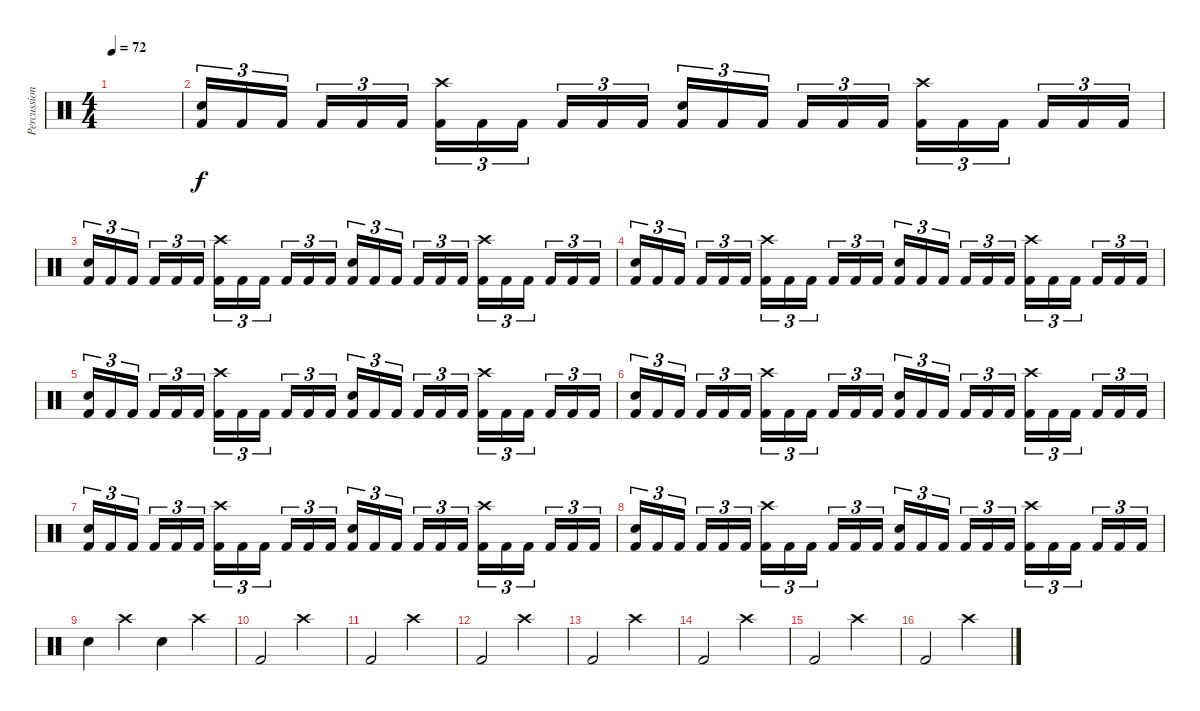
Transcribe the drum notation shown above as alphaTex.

\track ("Percussion" "Percussion") {instrument percussion}
\staff {score}
\articulation defaults
\ts (4 4)
\tempo 72
\clef neutral
\ks c
|
("Snare (hit) 2" "Kick (hit) 2").16{tu (3 2)} "Kick (hit) 2".16{tu (3 2)} "Kick (hit) 2".16{tu (3 2) beam splitsecondary} "Kick (hit) 2".16{tu (3 2)} "Kick (hit) 2".16{tu (3 2)} "Kick (hit) 2".16{tu (3 2)} ("Crash high (hit)" "Kick (hit) 2").16{tu (3 2)} "Kick (hit) 2".16{tu (3 2)} "Kick (hit) 2".16{tu (3 2) beam splitsecondary} "Kick (hit) 2".16{tu (3 2)} "Kick (hit) 2".16{tu (3 2)} "Kick (hit) 2".16{tu (3 2)} ("Snare (hit) 2" "Kick (hit) 2").16{tu (3 2)} "Kick (hit) 2".16{tu (3 2)} "Kick (hit) 2".16{tu (3 2) beam splitsecondary} "Kick (hit) 2".16{tu (3 2)} "Kick (hit) 2".16{tu (3 2)} "Kick (hit) 2".16{tu (3 2)} ("Crash high (hit)" "Kick (hit) 2").16{tu (3 2)} "Kick (hit) 2".16{tu (3 2)} "Kick (hit) 2".16{tu (3 2) beam splitsecondary} "Kick (hit) 2".16{tu (3 2)} "Kick (hit) 2".16{tu (3 2)} "Kick (hit) 2".16{tu (3 2)} |
("Snare (hit) 2" "Kick (hit) 2").16{tu (3 2)} "Kick (hit) 2".16{tu (3 2)} "Kick (hit) 2".16{tu (3 2) beam splitsecondary} "Kick (hit) 2".16{tu (3 2)} "Kick (hit) 2".16{tu (3 2)} "Kick (hit) 2".16{tu (3 2)} ("Crash high (hit)" "Kick (hit) 2").16{tu (3 2)} "Kick (hit) 2".16{tu (3 2)} "Kick (hit) 2".16{tu (3 2) beam splitsecondary} "Kick (hit) 2".16{tu (3 2)} "Kick (hit) 2".16{tu (3 2)} "Kick (hit) 2".16{tu (3 2)} ("Snare (hit) 2" "Kick (hit) 2").16{tu (3 2)} "Kick (hit) 2".16{tu (3 2)} "Kick (hit) 2".16{tu (3 2) beam splitsecondary} "Kick (hit) 2".16{tu (3 2)} "Kick (hit) 2".16{tu (3 2)} "Kick (hit) 2".16{tu (3 2)} ("Crash high (hit)" "Kick (hit) 2").16{tu (3 2)} "Kick (hit) 2".16{tu (3 2)} "Kick (hit) 2".16{tu (3 2) beam splitsecondary} "Kick (hit) 2".16{tu (3 2)} "Kick (hit) 2".16{tu (3 2)} "Kick (hit) 2".16{tu (3 2)} |
("Snare (hit) 2" "Kick (hit) 2").16{tu (3 2)} "Kick (hit) 2".16{tu (3 2)} "Kick (hit) 2".16{tu (3 2) beam splitsecondary} "Kick (hit) 2".16{tu (3 2)} "Kick (hit) 2".16{tu (3 2)} "Kick (hit) 2".16{tu (3 2)} ("Crash high (hit)" "Kick (hit) 2").16{tu (3 2)} "Kick (hit) 2".16{tu (3 2)} "Kick (hit) 2".16{tu (3 2) beam splitsecondary} "Kick (hit) 2".16{tu (3 2)} "Kick (hit) 2".16{tu (3 2)} "Kick (hit) 2".16{tu (3 2)} ("Snare (hit) 2" "Kick (hit) 2").16{tu (3 2)} "Kick (hit) 2".16{tu (3 2)} "Kick (hit) 2".16{tu (3 2) beam splitsecondary} "Kick (hit) 2".16{tu (3 2)} "Kick (hit) 2".16{tu (3 2)} "Kick (hit) 2".16{tu (3 2)} ("Crash high (hit)" "Kick (hit) 2").16{tu (3 2)} "Kick (hit) 2".16{tu (3 2)} "Kick (hit) 2".16{tu (3 2) beam splitsecondary} "Kick (hit) 2".16{tu (3 2)} "Kick (hit) 2".16{tu (3 2)} "Kick (hit) 2".16{tu (3 2)} |
("Snare (hit) 2" "Kick (hit) 2").16{tu (3 2)} "Kick (hit) 2".16{tu (3 2)} "Kick (hit) 2".16{tu (3 2) beam splitsecondary} "Kick (hit) 2".16{tu (3 2)} "Kick (hit) 2".16{tu (3 2)} "Kick (hit) 2".16{tu (3 2)} ("Crash high (hit)" "Kick (hit) 2").16{tu (3 2)} "Kick (hit) 2".16{tu (3 2)} "Kick (hit) 2".16{tu (3 2) beam splitsecondary} "Kick (hit) 2".16{tu (3 2)} "Kick (hit) 2".16{tu (3 2)} "Kick (hit) 2".16{tu (3 2)} ("Snare (hit) 2" "Kick (hit) 2").16{tu (3 2)} "Kick (hit) 2".16{tu (3 2)} "Kick (hit) 2".16{tu (3 2) beam splitsecondary} "Kick (hit) 2".16{tu (3 2)} "Kick (hit) 2".16{tu (3 2)} "Kick (hit) 2".16{tu (3 2)} ("Crash high (hit)" "Kick (hit) 2").16{tu (3 2)} "Kick (hit) 2".16{tu (3 2)} "Kick (hit) 2".16{tu (3 2) beam splitsecondary} "Kick (hit) 2".16{tu (3 2)} "Kick (hit) 2".16{tu (3 2)} "Kick (hit) 2".16{tu (3 2)} |
("Snare (hit) 2" "Kick (hit) 2").16{tu (3 2)} "Kick (hit) 2".16{tu (3 2)} "Kick (hit) 2".16{tu (3 2) beam splitsecondary} "Kick (hit) 2".16{tu (3 2)} "Kick (hit) 2".16{tu (3 2)} "Kick (hit) 2".16{tu (3 2)} ("Crash high (hit)" "Kick (hit) 2").16{tu (3 2)} "Kick (hit) 2".16{tu (3 2)} "Kick (hit) 2".16{tu (3 2) beam splitsecondary} "Kick (hit) 2".16{tu (3 2)} "Kick (hit) 2".16{tu (3 2)} "Kick (hit) 2".16{tu (3 2)} ("Snare (hit) 2" "Kick (hit) 2").16{tu (3 2)} "Kick (hit) 2".16{tu (3 2)} "Kick (hit) 2".16{tu (3 2) beam splitsecondary} "Kick (hit) 2".16{tu (3 2)} "Kick (hit) 2".16{tu (3 2)} "Kick (hit) 2".16{tu (3 2)} ("Crash high (hit)" "Kick (hit) 2").16{tu (3 2)} "Kick (hit) 2".16{tu (3 2)} "Kick (hit) 2".16{tu (3 2) beam splitsecondary} "Kick (hit) 2".16{tu (3 2)} "Kick (hit) 2".16{tu (3 2)} "Kick (hit) 2".16{tu (3 2)} |
("Snare (hit) 2" "Kick (hit) 2").16{tu (3 2)} "Kick (hit) 2".16{tu (3 2)} "Kick (hit) 2".16{tu (3 2) beam splitsecondary} "Kick (hit) 2".16{tu (3 2)} "Kick (hit) 2".16{tu (3 2)} "Kick (hit) 2".16{tu (3 2)} ("Crash high (hit)" "Kick (hit) 2").16{tu (3 2)} "Kick (hit) 2".16{tu (3 2)} "Kick (hit) 2".16{tu (3 2) beam splitsecondary} "Kick (hit) 2".16{tu (3 2)} "Kick (hit) 2".16{tu (3 2)} "Kick (hit) 2".16{tu (3 2)} ("Snare (hit) 2" "Kick (hit) 2").16{tu (3 2)} "Kick (hit) 2".16{tu (3 2)} "Kick (hit) 2".16{tu (3 2) beam splitsecondary} "Kick (hit) 2".16{tu (3 2)} "Kick (hit) 2".16{tu (3 2)} "Kick (hit) 2".16{tu (3 2)} ("Crash high (hit)" "Kick (hit) 2").16{tu (3 2)} "Kick (hit) 2".16{tu (3 2)} "Kick (hit) 2".16{tu (3 2) beam splitsecondary} "Kick (hit) 2".16{tu (3 2)} "Kick (hit) 2".16{tu (3 2)} "Kick (hit) 2".16{tu (3 2)} |
("Snare (hit) 2" "Kick (hit) 2").16{tu (3 2)} "Kick (hit) 2".16{tu (3 2)} "Kick (hit) 2".16{tu (3 2) beam splitsecondary} "Kick (hit) 2".16{tu (3 2)} "Kick (hit) 2".16{tu (3 2)} "Kick (hit) 2".16{tu (3 2)} ("Crash high (hit)" "Kick (hit) 2").16{tu (3 2)} "Kick (hit) 2".16{tu (3 2)} "Kick (hit) 2".16{tu (3 2) beam splitsecondary} "Kick (hit) 2".16{tu (3 2)} "Kick (hit) 2".16{tu (3 2)} "Kick (hit) 2".16{tu (3 2)} ("Snare (hit) 2" "Kick (hit) 2").16{tu (3 2)} "Kick (hit) 2".16{tu (3 2)} "Kick (hit) 2".16{tu (3 2) beam splitsecondary} "Kick (hit) 2".16{tu (3 2)} "Kick (hit) 2".16{tu (3 2)} "Kick (hit) 2".16{tu (3 2)} ("Crash high (hit)" "Kick (hit) 2").16{tu (3 2)} "Kick (hit) 2".16{tu (3 2)} "Kick (hit) 2".16{tu (3 2) beam splitsecondary} "Kick (hit) 2".16{tu (3 2)} "Kick (hit) 2".16{tu (3 2)} "Kick (hit) 2".16{tu (3 2)} |
"Snare (hit) 2".4 "Crash high (hit)".4 "Snare (hit) 2".4 "Crash high (hit)".4 |
"Kick (hit) 2".2 "Crash high (hit)".2 |
"Kick (hit) 2".2 "Crash high (hit)".2 |
"Kick (hit) 2".2 "Crash high (hit)".2 |
"Kick (hit) 2".2 "Crash high (hit)".2 |
"Kick (hit) 2".2 "Crash high (hit)".2 |
"Kick (hit) 2".2 "Crash high (hit)".2 |
"Kick (hit) 2".2 "Crash high (hit)".2
